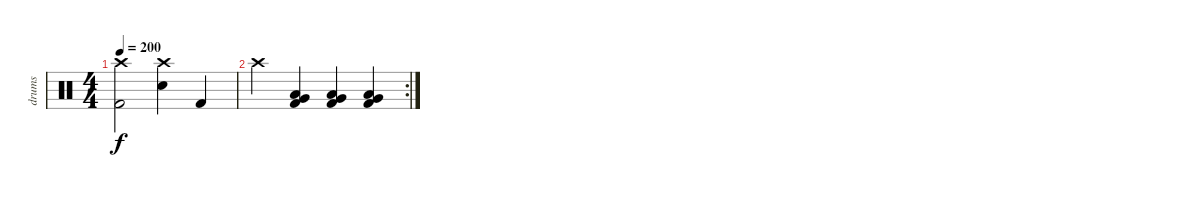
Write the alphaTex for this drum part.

\track ("drums" "drums") {instrument percussion}
\staff {score}
\articulation defaults
\ts (4 4)
\tempo 200
\clef neutral
\ks c
("Crash high (hit)" "Kick (hit) 2").2{dy f} ("Crash high (hit)" "Electric Snare (hit)").4 "Kick (hit) 2".4 |
\rc 2 "Crash high (hit)".4
("Low Floor Tom (hit)" "Very Low Tom (hit)" "Kick (hit) 2").4 ("Low Floor Tom (hit)" "Very Low Tom (hit)" "Kick (hit) 2").4 ("Low Floor Tom (hit)" "Very Low Tom (hit)" "Kick (hit) 2").4
